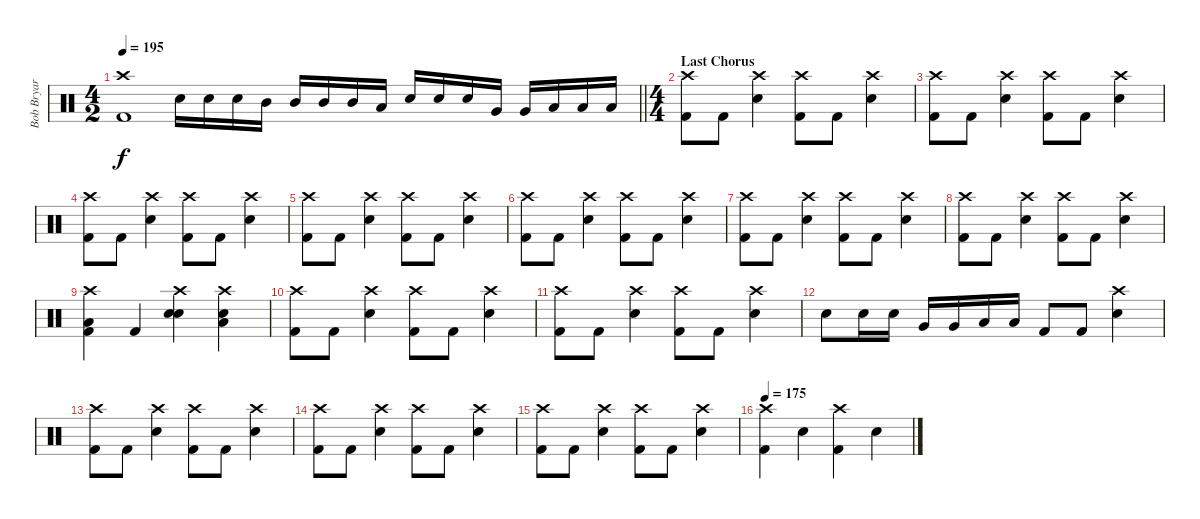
\track ("Bob Bryar (percussion)" "Bob Bryar ") {instrument percussion}
\staff {score}
\articulation defaults
\ts (4 2)
\tempo 195
\clef neutral
\barLineRight lightlight
\ks c
("Crash high (hit)" "Kick (hit) 2").1{dy f} "Electric Snare (hit)".16 "Electric Snare (hit)".16 "Electric Snare (hit)".16 "Mid Tom (hit)".16 "Mid Tom (hit)".16 "Mid Tom (hit)".16 "Mid Tom (hit)".16 "Low Tom (hit)".16 "Electric Snare (hit)".16 "Electric Snare (hit)".16 "Electric Snare (hit)".16 "Very Low Tom (hit)".16 "Very Low Tom (hit)".16 "Low Floor Tom (hit)".16 "Low Floor Tom (hit)".16 "Low Floor Tom (hit)".16 |
\ts (4 4)
\section ("" "Last Chorus")
("Crash high (hit)" "Kick (hit) 2").8 "Kick (hit) 2".8 ("Crash high (hit)" "Electric Snare (hit)").4 ("Crash high (hit)" "Kick (hit) 2").8 "Kick (hit) 2".8 ("Crash high (hit)" "Electric Snare (hit)").4 |
("Crash high (hit)" "Kick (hit) 2").8 "Kick (hit) 2".8 ("Crash high (hit)" "Electric Snare (hit)").4 ("Crash high (hit)" "Kick (hit) 2").8 "Kick (hit) 2".8 ("Crash high (hit)" "Electric Snare (hit)").4 |
("Crash high (hit)" "Kick (hit) 2").8 "Kick (hit) 2".8 ("Crash high (hit)" "Electric Snare (hit)").4 ("Crash high (hit)" "Kick (hit) 2").8 "Kick (hit) 2".8 ("Crash high (hit)" "Electric Snare (hit)").4 |
("Crash high (hit)" "Kick (hit) 2").8 "Kick (hit) 2".8 ("Crash high (hit)" "Electric Snare (hit)").4 ("Crash high (hit)" "Kick (hit) 2").8 "Kick (hit) 2".8 ("Crash high (hit)" "Electric Snare (hit)").4 |
("Crash high (hit)" "Kick (hit) 2").8 "Kick (hit) 2".8 ("Crash high (hit)" "Electric Snare (hit)").4 ("Crash high (hit)" "Kick (hit) 2").8 "Kick (hit) 2".8 ("Crash high (hit)" "Electric Snare (hit)").4 |
("Crash high (hit)" "Kick (hit) 2").8 "Kick (hit) 2".8 ("Crash high (hit)" "Electric Snare (hit)").4 ("Crash high (hit)" "Kick (hit) 2").8 "Kick (hit) 2".8 ("Crash high (hit)" "Electric Snare (hit)").4 |
("Crash high (hit)" "Kick (hit) 2").8 "Kick (hit) 2".8 ("Crash high (hit)" "Electric Snare (hit)").4 ("Crash high (hit)" "Kick (hit) 2").8 "Kick (hit) 2".8 ("Crash high (hit)" "Electric Snare (hit)").4 |
("Crash high (hit)" "Low Floor Tom (hit)" "Kick (hit) 2").4 "Kick (hit) 2".4 ("Crash high (hit)" "Electric Snare (hit)" "Electric Snare (hit)").4 ("Crash high (hit)" "Electric Snare (hit)" "Low Floor Tom (hit)").4 |
("Crash high (hit)" "Kick (hit) 2").8 "Kick (hit) 2".8 ("Crash high (hit)" "Electric Snare (hit)").4 ("Crash high (hit)" "Kick (hit) 2").8 "Kick (hit) 2".8 ("Crash high (hit)" "Electric Snare (hit)").4 |
("Crash high (hit)" "Kick (hit) 2").8 "Kick (hit) 2".8 ("Crash high (hit)" "Electric Snare (hit)").4 ("Crash high (hit)" "Kick (hit) 2").8 "Kick (hit) 2".8 ("Crash high (hit)" "Electric Snare (hit)").4 |
"Electric Snare (hit)".8 "Electric Snare (hit)".16 "Electric Snare (hit)".16 "Very Low Tom (hit)".16 "Very Low Tom (hit)".16 "Low Floor Tom (hit)".16 "Low Floor Tom (hit)".16 "Kick (hit) 2".8 "Kick (hit) 2".8 ("Crash high (hit)" "Electric Snare (hit)").4 |
("Crash high (hit)" "Kick (hit) 2").8 "Kick (hit) 2".8 ("Crash high (hit)" "Electric Snare (hit)").4 ("Crash high (hit)" "Kick (hit) 2").8 "Kick (hit) 2".8 ("Crash high (hit)" "Electric Snare (hit)").4 |
("Crash high (hit)" "Kick (hit) 2").8 "Kick (hit) 2".8 ("Crash high (hit)" "Electric Snare (hit)").4 ("Crash high (hit)" "Kick (hit) 2").8 "Kick (hit) 2".8 ("Crash high (hit)" "Electric Snare (hit)").4 |
("Crash high (hit)" "Kick (hit) 2").8 "Kick (hit) 2".8 ("Crash high (hit)" "Electric Snare (hit)").4 ("Crash high (hit)" "Kick (hit) 2").8 "Kick (hit) 2".8 ("Crash high (hit)" "Electric Snare (hit)").4 |
\tempo 175
("Crash high (hit)" "Kick (hit) 2").4 "Electric Snare (hit)".4 ("Crash high (hit)" "Kick (hit) 2").4 "Electric Snare (hit)".4
